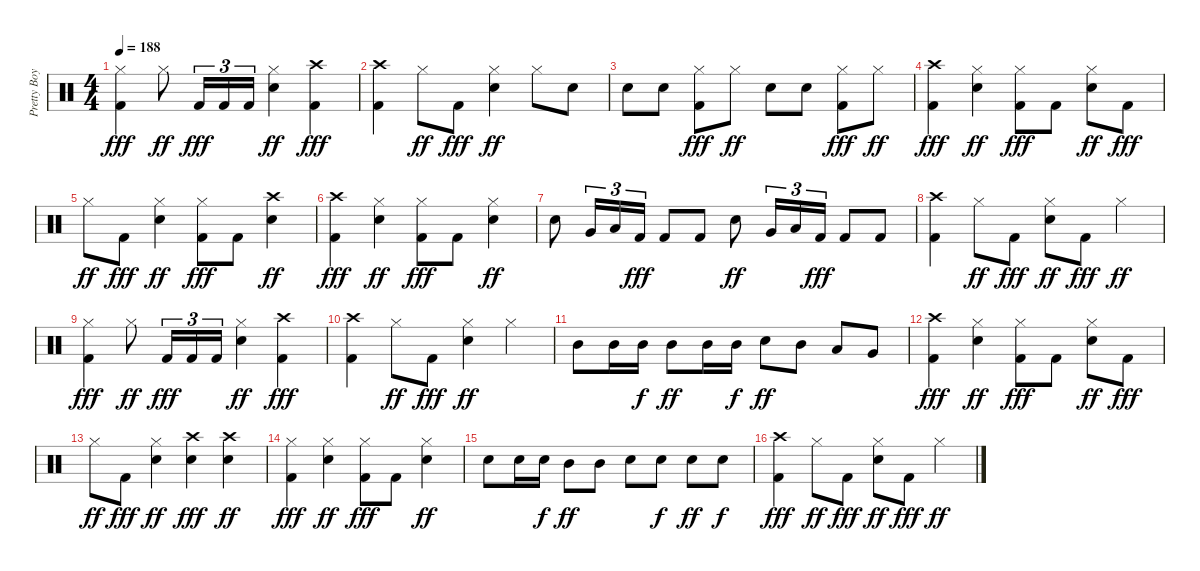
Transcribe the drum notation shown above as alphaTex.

\track ("Pretty Boy Geoff (Lars Drums)" "Pretty Boy") {instrument percussion}
\staff {score}
\articulation defaults
\ts (4 4)
\tempo 188
\clef neutral
\ks c
("Hi-Hat (closed)" "Kick (hit) 2").4{dy fff} "Hi-Hat (closed)".8{dy ff} "Kick (hit) 2".16{tu (3 2) dy fff} "Kick (hit) 2".16{tu (3 2)} "Kick (hit) 2".16{tu (3 2)} ("Hi-Hat (closed)" "Snare (hit) 2").4{dy ff} ("Crash high (hit)" "Kick (hit) 2").4{dy fff} |
("Crash high (hit)" "Kick (hit) 2").4 "Hi-Hat (closed)".8{dy ff} "Kick (hit) 2".8{dy fff} ("Hi-Hat (closed)" "Snare (hit) 2").4{dy ff} "Hi-Hat (closed)".8 "Snare (hit) 2".8 |
"Snare (hit) 2".8 "Snare (hit) 2".8 ("Hi-Hat (closed)" "Kick (hit) 2").8{dy fff} "Hi-Hat (closed)".8{dy ff} "Snare (hit) 2".8 "Snare (hit) 2".8 ("Hi-Hat (closed)" "Kick (hit) 2").8{dy fff} "Hi-Hat (closed)".8{dy ff} |
("Crash high (hit)" "Kick (hit) 2").4{dy fff} ("Hi-Hat (closed)" "Snare (hit) 2").4{dy ff} ("Hi-Hat (closed)" "Kick (hit) 2").8{dy fff} "Kick (hit) 2".8 ("Hi-Hat (closed)" "Snare (hit) 2").8{dy ff} "Kick (hit) 2".8{dy fff} |
"Hi-Hat (closed)".8{dy ff} "Kick (hit) 2".8{dy fff} ("Hi-Hat (closed)" "Snare (hit) 2").4{dy ff} ("Hi-Hat (closed)" "Kick (hit) 2").8{dy fff} "Kick (hit) 2".8 ("Crash high (hit)" "Snare (hit) 2").4{dy ff} |
("Crash high (hit)" "Kick (hit) 2").4{dy fff} ("Hi-Hat (closed)" "Snare (hit) 2").4{dy ff} ("Hi-Hat (closed)" "Kick (hit) 2").8{dy fff} "Kick (hit) 2".8 ("Hi-Hat (closed)" "Snare (hit) 2").4{dy ff} |
"Snare (hit) 2".8 "Very Low Tom (hit)".16{tu (3 2)} "Low Tom (hit)".16{tu (3 2)} "Kick (hit) 2".16{tu (3 2) dy fff} "Kick (hit) 2".8 "Kick (hit) 2".8 "Snare (hit) 2".8{dy ff} "Very Low Tom (hit)".16{tu (3 2)} "Low Tom (hit)".16{tu (3 2)} "Kick (hit) 2".16{tu (3 2) dy fff} "Kick (hit) 2".8 "Kick (hit) 2".8 |
("Crash high (hit)" "Kick (hit) 2").4 "Hi-Hat (closed)".8{dy ff} "Kick (hit) 2".8{dy fff} ("Hi-Hat (closed)" "Snare (hit) 2").8{dy ff} "Kick (hit) 2".8{dy fff} "Hi-Hat (closed)".4{dy ff} |
("Hi-Hat (closed)" "Kick (hit) 2").4{dy fff} "Hi-Hat (closed)".8{dy ff} "Kick (hit) 2".16{tu (3 2) dy fff} "Kick (hit) 2".16{tu (3 2)} "Kick (hit) 2".16{tu (3 2)} ("Hi-Hat (closed)" "Snare (hit) 2").4{dy ff} ("Crash high (hit)" "Kick (hit) 2").4{dy fff} |
("Crash high (hit)" "Kick (hit) 2").4 "Hi-Hat (closed)".8{dy ff} "Kick (hit) 2".8{dy fff} ("Hi-Hat (closed)" "Snare (hit) 2").4{dy ff} "Hi-Hat (closed)".4 |
"Mid Tom (hit)".8 "Mid Tom (hit)".16 "Mid Tom (hit)".16{dy f} "Mid Tom (hit)".8{dy ff} "Mid Tom (hit)".16 "Mid Tom (hit)".16{dy f} "Snare (hit) 2".8{dy ff} "Mid Tom (hit)".8 "Low Tom (hit)".8 "Very Low Tom (hit)".8 |
("Crash high (hit)" "Kick (hit) 2").4{dy fff} ("Hi-Hat (closed)" "Snare (hit) 2").4{dy ff} ("Hi-Hat (closed)" "Kick (hit) 2").8{dy fff} "Kick (hit) 2".8 ("Hi-Hat (closed)" "Snare (hit) 2").8{dy ff} "Kick (hit) 2".8{dy fff} |
"Hi-Hat (closed)".8{dy ff} "Kick (hit) 2".8{dy fff} ("Hi-Hat (closed)" "Snare (hit) 2").4{dy ff} ("Crash high (hit)" "Snare (hit) 2").4{dy fff} ("Crash high (hit)" "Snare (hit) 2").4{dy ff} |
("Hi-Hat (closed)" "Kick (hit) 2").4{dy fff} ("Hi-Hat (closed)" "Snare (hit) 2").4{dy ff} ("Hi-Hat (closed)" "Kick (hit) 2").8{dy fff} "Kick (hit) 2".8 ("Hi-Hat (closed)" "Snare (hit) 2").4{dy ff} |
"Snare (hit) 2".8 "Snare (hit) 2".16 "Snare (hit) 2".16{dy f} "Mid Tom (hit)".8{dy ff} "Mid Tom (hit)".8 "Snare (hit) 2".8 "Snare (hit) 2".8{dy f} "Snare (hit) 2".8{dy ff} "Snare (hit) 2".8{dy f} |
("Crash high (hit)" "Kick (hit) 2").4{dy fff} "Hi-Hat (closed)".8{dy ff} "Kick (hit) 2".8{dy fff} ("Hi-Hat (closed)" "Snare (hit) 2").8{dy ff} "Kick (hit) 2".8{dy fff} "Hi-Hat (closed)".4{dy ff}
